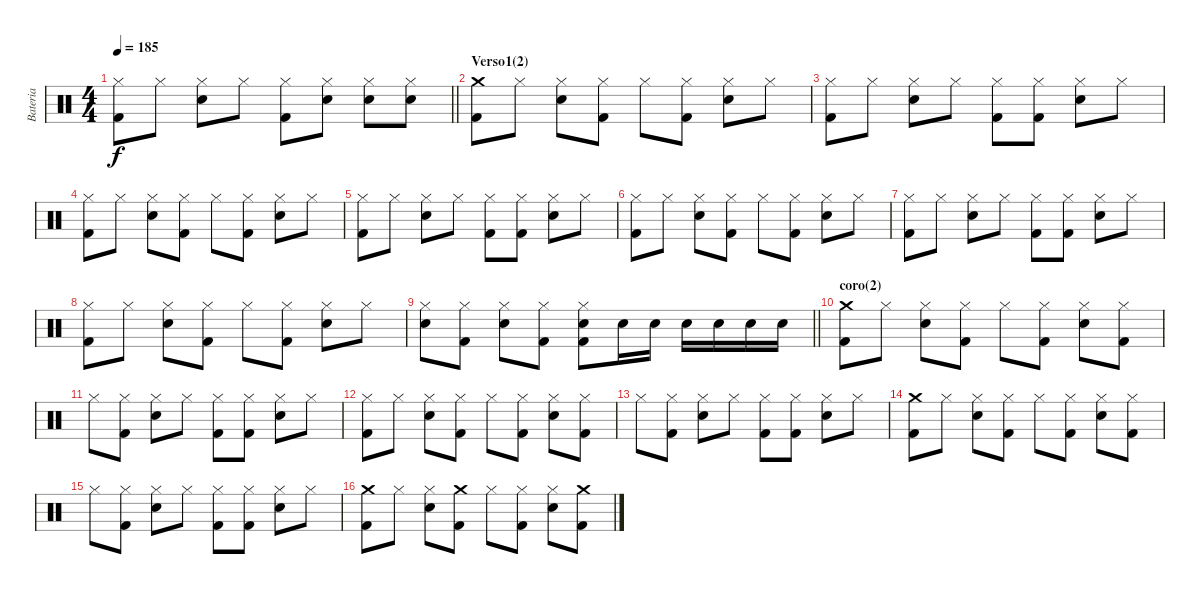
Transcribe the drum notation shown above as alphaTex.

\track ("Bateria" "Bateria") {instrument percussion}
\staff {score}
\articulation defaults
\ts (4 4)
\tempo 185
\clef neutral
\barLineRight lightlight
\ks c
("Hi-Hat (closed)" "Kick (hit) 2").8{dy f} "Hi-Hat (closed)".8 ("Hi-Hat (closed)" "Snare (hit) 2").8 "Hi-Hat (closed)".8 ("Hi-Hat (closed)" "Kick (hit) 2").8 ("Hi-Hat (closed)" "Snare (hit) 2").8 ("Hi-Hat (closed)" "Snare (hit) 2").8 ("Hi-Hat (closed)" "Snare (hit) 2").8 |
\section ("" "Verso1(2)")
("Crash medium (hit)" "Kick (hit) 2").8 "Hi-Hat (closed)".8 ("Hi-Hat (closed)" "Snare (hit) 2").8 ("Hi-Hat (closed)" "Kick (hit) 2").8 "Hi-Hat (closed)".8 ("Hi-Hat (closed)" "Kick (hit) 2").8 ("Hi-Hat (closed)" "Snare (hit) 2").8 "Hi-Hat (closed)".8 |
("Hi-Hat (closed)" "Kick (hit) 2").8 "Hi-Hat (closed)".8 ("Hi-Hat (closed)" "Snare (hit) 2").8 "Hi-Hat (closed)".8 ("Hi-Hat (closed)" "Kick (hit) 2").8 ("Hi-Hat (closed)" "Kick (hit) 2").8 ("Hi-Hat (closed)" "Snare (hit) 2").8 "Hi-Hat (closed)".8 |
("Hi-Hat (closed)" "Kick (hit) 2").8 "Hi-Hat (closed)".8 ("Hi-Hat (closed)" "Snare (hit) 2").8 ("Hi-Hat (closed)" "Kick (hit) 2").8 "Hi-Hat (closed)".8 ("Hi-Hat (closed)" "Kick (hit) 2").8 ("Hi-Hat (closed)" "Snare (hit) 2").8 "Hi-Hat (closed)".8 |
("Hi-Hat (closed)" "Kick (hit) 2").8 "Hi-Hat (closed)".8 ("Hi-Hat (closed)" "Snare (hit) 2").8 "Hi-Hat (closed)".8 ("Hi-Hat (closed)" "Kick (hit) 2").8 ("Hi-Hat (closed)" "Kick (hit) 2").8 ("Hi-Hat (closed)" "Snare (hit) 2").8 "Hi-Hat (closed)".8 |
("Hi-Hat (closed)" "Kick (hit) 2").8 "Hi-Hat (closed)".8 ("Hi-Hat (closed)" "Snare (hit) 2").8 ("Hi-Hat (closed)" "Kick (hit) 2").8 "Hi-Hat (closed)".8 ("Hi-Hat (closed)" "Kick (hit) 2").8 ("Hi-Hat (closed)" "Snare (hit) 2").8 "Hi-Hat (closed)".8 |
("Hi-Hat (closed)" "Kick (hit) 2").8 "Hi-Hat (closed)".8 ("Hi-Hat (closed)" "Snare (hit) 2").8 "Hi-Hat (closed)".8 ("Hi-Hat (closed)" "Kick (hit) 2").8 ("Hi-Hat (closed)" "Kick (hit) 2").8 ("Hi-Hat (closed)" "Snare (hit) 2").8 "Hi-Hat (closed)".8 |
("Hi-Hat (closed)" "Kick (hit) 2").8 "Hi-Hat (closed)".8 ("Hi-Hat (closed)" "Snare (hit) 2").8 ("Hi-Hat (closed)" "Kick (hit) 2").8 "Hi-Hat (closed)".8 ("Hi-Hat (closed)" "Kick (hit) 2").8 ("Hi-Hat (closed)" "Snare (hit) 2").8 "Hi-Hat (closed)".8 |
\barLineRight lightlight
("Hi-Hat (closed)" "Snare (hit) 2").8 ("Hi-Hat (closed)" "Kick (hit) 2").8 ("Hi-Hat (closed)" "Snare (hit) 2").8 ("Hi-Hat (closed)" "Kick (hit) 2").8 ("Hi-Hat (closed)" "Snare (hit) 2" "Kick (hit) 2").8 "Snare (hit) 2".16 "Snare (hit) 2".16 "Snare (hit) 2".16 "Snare (hit) 2".16 "Snare (hit) 2".16 "Snare (hit) 2".16 |
\section ("" "coro(2)")
("Crash medium (hit)" "Kick (hit) 2").8 "Hi-Hat (closed)".8 ("Hi-Hat (closed)" "Snare (hit) 2").8 ("Hi-Hat (closed)" "Kick (hit) 2").8 "Hi-Hat (closed)".8 ("Hi-Hat (closed)" "Kick (hit) 2").8 ("Hi-Hat (closed)" "Snare (hit) 2").8 ("Hi-Hat (closed)" "Kick (hit) 2").8 |
"Hi-Hat (closed)".8 ("Hi-Hat (closed)" "Kick (hit) 2").8 ("Hi-Hat (closed)" "Snare (hit) 2").8 "Hi-Hat (closed)".8 ("Hi-Hat (closed)" "Kick (hit) 2").8 ("Hi-Hat (closed)" "Kick (hit) 2").8 ("Hi-Hat (closed)" "Snare (hit) 2").8 "Hi-Hat (closed)".8 |
("Hi-Hat (closed)" "Kick (hit) 2").8 "Hi-Hat (closed)".8 ("Hi-Hat (closed)" "Snare (hit) 2").8 ("Hi-Hat (closed)" "Kick (hit) 2").8 "Hi-Hat (closed)".8 ("Hi-Hat (closed)" "Kick (hit) 2").8 ("Hi-Hat (closed)" "Snare (hit) 2").8 ("Hi-Hat (closed)" "Kick (hit) 2").8 |
"Hi-Hat (closed)".8 ("Hi-Hat (closed)" "Kick (hit) 2").8 ("Hi-Hat (closed)" "Snare (hit) 2").8 "Hi-Hat (closed)".8 ("Hi-Hat (closed)" "Kick (hit) 2").8 ("Hi-Hat (closed)" "Kick (hit) 2").8 ("Hi-Hat (closed)" "Snare (hit) 2").8 "Hi-Hat (closed)".8 |
("Crash medium (hit)" "Kick (hit) 2").8 "Hi-Hat (closed)".8 ("Hi-Hat (closed)" "Snare (hit) 2").8 ("Hi-Hat (closed)" "Kick (hit) 2").8 "Hi-Hat (closed)".8 ("Hi-Hat (closed)" "Kick (hit) 2").8 ("Hi-Hat (closed)" "Snare (hit) 2").8 ("Hi-Hat (closed)" "Kick (hit) 2").8 |
"Hi-Hat (closed)".8 ("Hi-Hat (closed)" "Kick (hit) 2").8 ("Hi-Hat (closed)" "Snare (hit) 2").8 "Hi-Hat (closed)".8 ("Hi-Hat (closed)" "Kick (hit) 2").8 ("Hi-Hat (closed)" "Kick (hit) 2").8 ("Hi-Hat (closed)" "Snare (hit) 2").8 "Hi-Hat (closed)".8 |
("Crash medium (hit)" "Kick (hit) 2").8 "Hi-Hat (closed)".8 ("Hi-Hat (closed)" "Snare (hit) 2").8 ("Crash medium (hit)" "Kick (hit) 2").8 "Hi-Hat (closed)".8 ("Hi-Hat (closed)" "Kick (hit) 2").8 ("Hi-Hat (closed)" "Snare (hit) 2").8 ("Crash medium (hit)" "Kick (hit) 2").8
